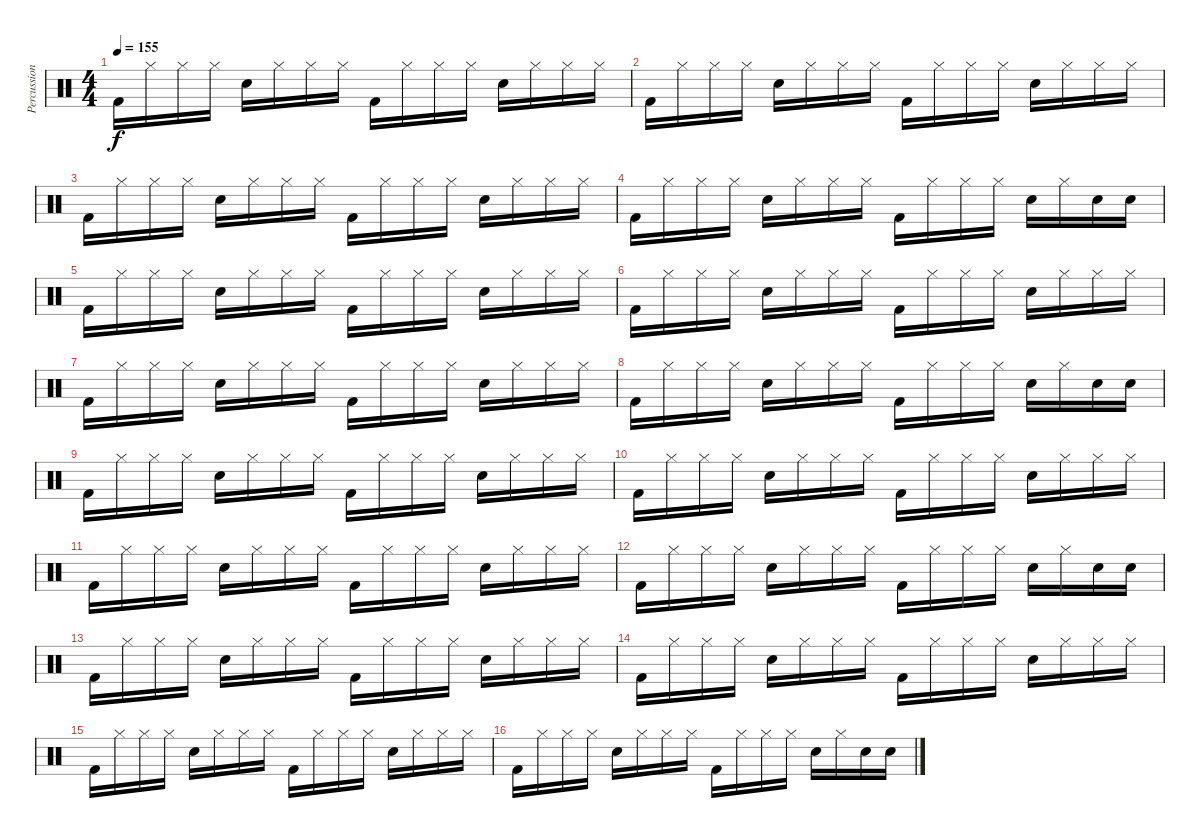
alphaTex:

\track ("Percussion" "Percussion") {instrument percussion}
\staff {score}
\articulation defaults
\ts (4 4)
\tempo 155
\clef neutral
\ks c "Kick (hit) 2".16{dy f} "Hi-Hat (closed)".16 "Hi-Hat (closed)".16 "Hi-Hat (closed)".16 "Snare (hit) 2".16 "Hi-Hat (closed)".16 "Hi-Hat (closed)".16 "Hi-Hat (closed)".16 "Kick (hit) 2".16 "Hi-Hat (closed)".16 "Hi-Hat (closed)".16 "Hi-Hat (closed)".16 "Snare (hit) 2".16 "Hi-Hat (closed)".16 "Hi-Hat (closed)".16 "Hi-Hat (closed)".16
|
"Kick (hit) 2".16 "Hi-Hat (closed)".16 "Hi-Hat (closed)".16 "Hi-Hat (closed)".16 "Snare (hit) 2".16 "Hi-Hat (closed)".16 "Hi-Hat (closed)".16 "Hi-Hat (closed)".16 "Kick (hit) 2".16 "Hi-Hat (closed)".16 "Hi-Hat (closed)".16 "Hi-Hat (closed)".16 "Snare (hit) 2".16 "Hi-Hat (closed)".16 "Hi-Hat (closed)".16 "Hi-Hat (closed)".16 |
"Kick (hit) 2".16 "Hi-Hat (closed)".16 "Hi-Hat (closed)".16 "Hi-Hat (closed)".16 "Snare (hit) 2".16 "Hi-Hat (closed)".16 "Hi-Hat (closed)".16 "Hi-Hat (closed)".16 "Kick (hit) 2".16 "Hi-Hat (closed)".16 "Hi-Hat (closed)".16 "Hi-Hat (closed)".16 "Snare (hit) 2".16 "Hi-Hat (closed)".16 "Hi-Hat (closed)".16 "Hi-Hat (closed)".16 |
"Kick (hit) 2".16 "Hi-Hat (closed)".16 "Hi-Hat (closed)".16 "Hi-Hat (closed)".16 "Snare (hit) 2".16 "Hi-Hat (closed)".16 "Hi-Hat (closed)".16 "Hi-Hat (closed)".16 "Kick (hit) 2".16 "Hi-Hat (closed)".16 "Hi-Hat (closed)".16 "Hi-Hat (closed)".16 "Snare (hit) 2".16 "Hi-Hat (closed)".16 "Snare (hit) 2".16 "Snare (hit) 2".16 |
"Kick (hit) 2".16 "Hi-Hat (closed)".16 "Hi-Hat (closed)".16 "Hi-Hat (closed)".16 "Snare (hit) 2".16 "Hi-Hat (closed)".16 "Hi-Hat (closed)".16 "Hi-Hat (closed)".16 "Kick (hit) 2".16 "Hi-Hat (closed)".16 "Hi-Hat (closed)".16 "Hi-Hat (closed)".16 "Snare (hit) 2".16 "Hi-Hat (closed)".16 "Hi-Hat (closed)".16 "Hi-Hat (closed)".16 |
"Kick (hit) 2".16 "Hi-Hat (closed)".16 "Hi-Hat (closed)".16 "Hi-Hat (closed)".16 "Snare (hit) 2".16 "Hi-Hat (closed)".16 "Hi-Hat (closed)".16 "Hi-Hat (closed)".16 "Kick (hit) 2".16 "Hi-Hat (closed)".16 "Hi-Hat (closed)".16 "Hi-Hat (closed)".16 "Snare (hit) 2".16 "Hi-Hat (closed)".16 "Hi-Hat (closed)".16 "Hi-Hat (closed)".16 |
"Kick (hit) 2".16 "Hi-Hat (closed)".16 "Hi-Hat (closed)".16 "Hi-Hat (closed)".16 "Snare (hit) 2".16 "Hi-Hat (closed)".16 "Hi-Hat (closed)".16 "Hi-Hat (closed)".16 "Kick (hit) 2".16 "Hi-Hat (closed)".16 "Hi-Hat (closed)".16 "Hi-Hat (closed)".16 "Snare (hit) 2".16 "Hi-Hat (closed)".16 "Hi-Hat (closed)".16 "Hi-Hat (closed)".16 |
"Kick (hit) 2".16 "Hi-Hat (closed)".16 "Hi-Hat (closed)".16 "Hi-Hat (closed)".16 "Snare (hit) 2".16 "Hi-Hat (closed)".16 "Hi-Hat (closed)".16 "Hi-Hat (closed)".16 "Kick (hit) 2".16 "Hi-Hat (closed)".16 "Hi-Hat (closed)".16 "Hi-Hat (closed)".16 "Snare (hit) 2".16 "Hi-Hat (closed)".16 "Snare (hit) 2".16 "Snare (hit) 2".16 |
"Kick (hit) 2".16 "Hi-Hat (closed)".16 "Hi-Hat (closed)".16 "Hi-Hat (closed)".16 "Snare (hit) 2".16 "Hi-Hat (closed)".16 "Hi-Hat (closed)".16 "Hi-Hat (closed)".16 "Kick (hit) 2".16 "Hi-Hat (closed)".16 "Hi-Hat (closed)".16 "Hi-Hat (closed)".16 "Snare (hit) 2".16 "Hi-Hat (closed)".16 "Hi-Hat (closed)".16 "Hi-Hat (closed)".16 |
"Kick (hit) 2".16 "Hi-Hat (closed)".16 "Hi-Hat (closed)".16 "Hi-Hat (closed)".16 "Snare (hit) 2".16 "Hi-Hat (closed)".16 "Hi-Hat (closed)".16 "Hi-Hat (closed)".16 "Kick (hit) 2".16 "Hi-Hat (closed)".16 "Hi-Hat (closed)".16 "Hi-Hat (closed)".16 "Snare (hit) 2".16 "Hi-Hat (closed)".16 "Hi-Hat (closed)".16 "Hi-Hat (closed)".16 |
"Kick (hit) 2".16 "Hi-Hat (closed)".16 "Hi-Hat (closed)".16 "Hi-Hat (closed)".16 "Snare (hit) 2".16 "Hi-Hat (closed)".16 "Hi-Hat (closed)".16 "Hi-Hat (closed)".16 "Kick (hit) 2".16 "Hi-Hat (closed)".16 "Hi-Hat (closed)".16 "Hi-Hat (closed)".16 "Snare (hit) 2".16 "Hi-Hat (closed)".16 "Hi-Hat (closed)".16 "Hi-Hat (closed)".16 |
"Kick (hit) 2".16 "Hi-Hat (closed)".16 "Hi-Hat (closed)".16 "Hi-Hat (closed)".16 "Snare (hit) 2".16 "Hi-Hat (closed)".16 "Hi-Hat (closed)".16 "Hi-Hat (closed)".16 "Kick (hit) 2".16 "Hi-Hat (closed)".16 "Hi-Hat (closed)".16 "Hi-Hat (closed)".16 "Snare (hit) 2".16 "Hi-Hat (closed)".16 "Snare (hit) 2".16 "Snare (hit) 2".16 |
"Kick (hit) 2".16 "Hi-Hat (closed)".16 "Hi-Hat (closed)".16 "Hi-Hat (closed)".16 "Snare (hit) 2".16 "Hi-Hat (closed)".16 "Hi-Hat (closed)".16 "Hi-Hat (closed)".16 "Kick (hit) 2".16 "Hi-Hat (closed)".16 "Hi-Hat (closed)".16 "Hi-Hat (closed)".16 "Snare (hit) 2".16 "Hi-Hat (closed)".16 "Hi-Hat (closed)".16 "Hi-Hat (closed)".16 |
"Kick (hit) 2".16 "Hi-Hat (closed)".16 "Hi-Hat (closed)".16 "Hi-Hat (closed)".16 "Snare (hit) 2".16 "Hi-Hat (closed)".16 "Hi-Hat (closed)".16 "Hi-Hat (closed)".16 "Kick (hit) 2".16 "Hi-Hat (closed)".16 "Hi-Hat (closed)".16 "Hi-Hat (closed)".16 "Snare (hit) 2".16 "Hi-Hat (closed)".16 "Hi-Hat (closed)".16 "Hi-Hat (closed)".16 |
"Kick (hit) 2".16 "Hi-Hat (closed)".16 "Hi-Hat (closed)".16 "Hi-Hat (closed)".16 "Snare (hit) 2".16 "Hi-Hat (closed)".16 "Hi-Hat (closed)".16 "Hi-Hat (closed)".16 "Kick (hit) 2".16 "Hi-Hat (closed)".16 "Hi-Hat (closed)".16 "Hi-Hat (closed)".16 "Snare (hit) 2".16 "Hi-Hat (closed)".16 "Hi-Hat (closed)".16 "Hi-Hat (closed)".16 |
"Kick (hit) 2".16 "Hi-Hat (closed)".16 "Hi-Hat (closed)".16 "Hi-Hat (closed)".16 "Snare (hit) 2".16 "Hi-Hat (closed)".16 "Hi-Hat (closed)".16 "Hi-Hat (closed)".16 "Kick (hit) 2".16 "Hi-Hat (closed)".16 "Hi-Hat (closed)".16 "Hi-Hat (closed)".16 "Snare (hit) 2".16 "Hi-Hat (closed)".16 "Snare (hit) 2".16 "Snare (hit) 2".16
